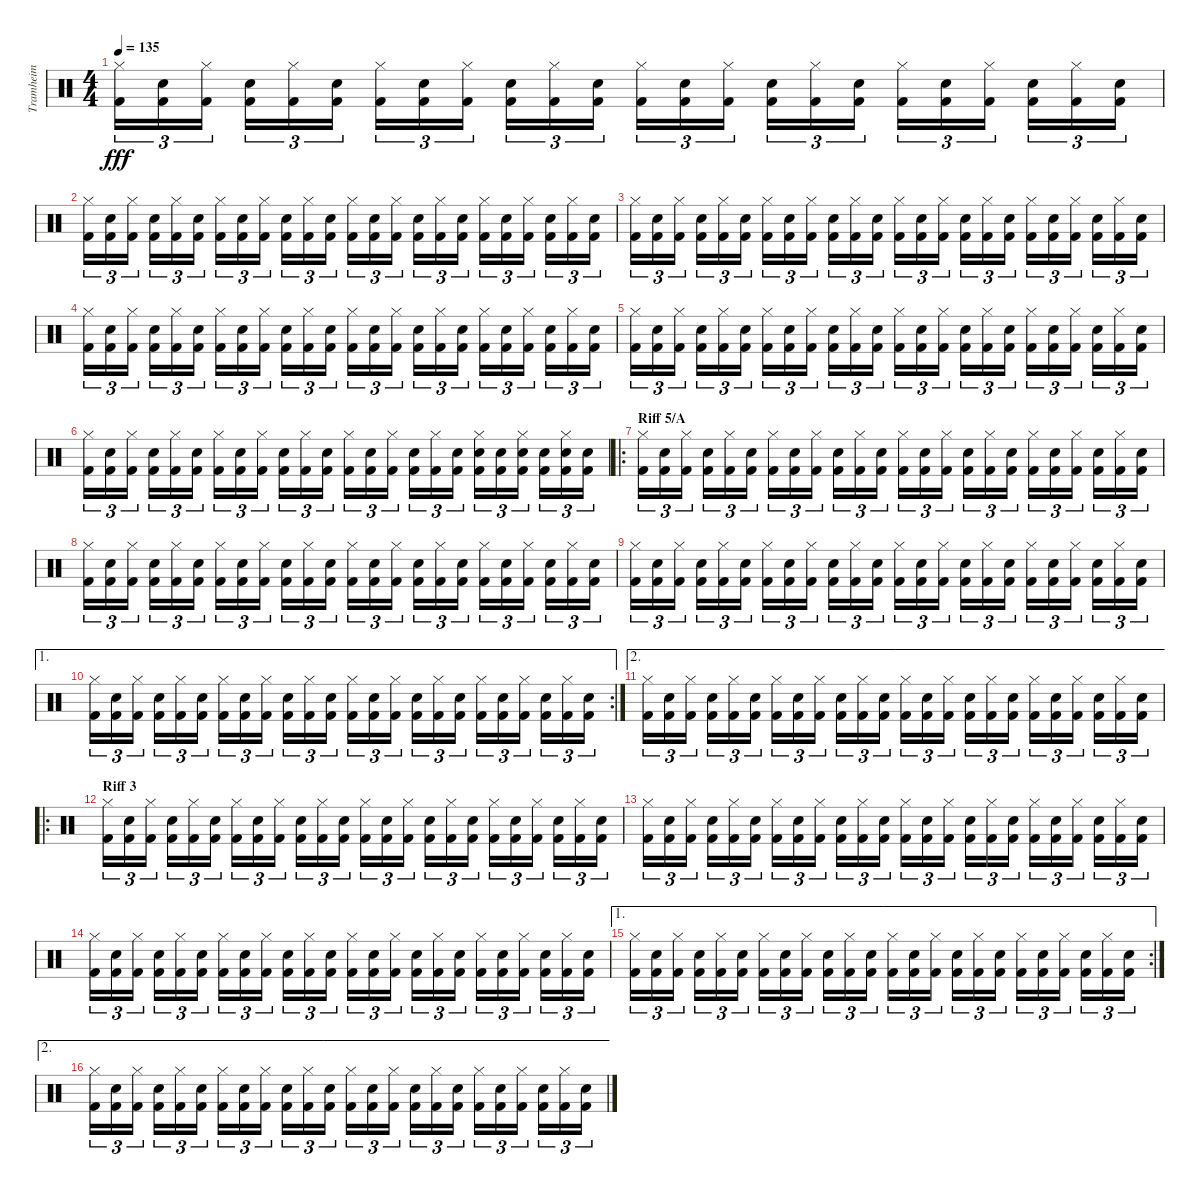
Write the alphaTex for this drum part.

\track ("Tramheim" "Tramheim") {instrument percussion}
\staff {score}
\articulation defaults
\ts (4 4)
\tempo 135
\clef neutral
\ks c
("Hi-Hat (closed)" "Kick (hit) 2").16{tu (3 2) dy fff} ("Snare (hit) 2" "Kick (hit) 2").16{tu (3 2)} ("Hi-Hat (closed)" "Kick (hit) 2").16{tu (3 2)} ("Snare (hit) 2" "Kick (hit) 2").16{tu (3 2)} ("Hi-Hat (closed)" "Kick (hit) 2").16{tu (3 2)} ("Snare (hit) 2" "Kick (hit) 2").16{tu (3 2)} ("Hi-Hat (closed)" "Kick (hit) 2").16{tu (3 2)} ("Snare (hit) 2" "Kick (hit) 2").16{tu (3 2)} ("Hi-Hat (closed)" "Kick (hit) 2").16{tu (3 2)} ("Snare (hit) 2" "Kick (hit) 2").16{tu (3 2)} ("Hi-Hat (closed)" "Kick (hit) 2").16{tu (3 2)} ("Snare (hit) 2" "Kick (hit) 2").16{tu (3 2)} ("Hi-Hat (closed)" "Kick (hit) 2").16{tu (3 2)} ("Snare (hit) 2" "Kick (hit) 2").16{tu (3 2)} ("Hi-Hat (closed)" "Kick (hit) 2").16{tu (3 2)} ("Snare (hit) 2" "Kick (hit) 2").16{tu (3 2)} ("Hi-Hat (closed)" "Kick (hit) 2").16{tu (3 2)} ("Snare (hit) 2" "Kick (hit) 2").16{tu (3 2)} ("Hi-Hat (closed)" "Kick (hit) 2").16{tu (3 2)} ("Snare (hit) 2" "Kick (hit) 2").16{tu (3 2)} ("Hi-Hat (closed)" "Kick (hit) 2").16{tu (3 2)} ("Snare (hit) 2" "Kick (hit) 2").16{tu (3 2)} ("Hi-Hat (closed)" "Kick (hit) 2").16{tu (3 2)} ("Snare (hit) 2" "Kick (hit) 2").16{tu (3 2)} |
("Hi-Hat (closed)" "Kick (hit) 2").16{tu (3 2)} ("Snare (hit) 2" "Kick (hit) 2").16{tu (3 2)} ("Hi-Hat (closed)" "Kick (hit) 2").16{tu (3 2)} ("Snare (hit) 2" "Kick (hit) 2").16{tu (3 2)} ("Hi-Hat (closed)" "Kick (hit) 2").16{tu (3 2)} ("Snare (hit) 2" "Kick (hit) 2").16{tu (3 2)} ("Hi-Hat (closed)" "Kick (hit) 2").16{tu (3 2)} ("Snare (hit) 2" "Kick (hit) 2").16{tu (3 2)} ("Hi-Hat (closed)" "Kick (hit) 2").16{tu (3 2)} ("Snare (hit) 2" "Kick (hit) 2").16{tu (3 2)} ("Hi-Hat (closed)" "Kick (hit) 2").16{tu (3 2)} ("Snare (hit) 2" "Kick (hit) 2").16{tu (3 2)} ("Hi-Hat (closed)" "Kick (hit) 2").16{tu (3 2)} ("Snare (hit) 2" "Kick (hit) 2").16{tu (3 2)} ("Hi-Hat (closed)" "Kick (hit) 2").16{tu (3 2)} ("Snare (hit) 2" "Kick (hit) 2").16{tu (3 2)} ("Hi-Hat (closed)" "Kick (hit) 2").16{tu (3 2)} ("Snare (hit) 2" "Kick (hit) 2").16{tu (3 2)} ("Hi-Hat (closed)" "Kick (hit) 2").16{tu (3 2)} ("Snare (hit) 2" "Kick (hit) 2").16{tu (3 2)} ("Hi-Hat (closed)" "Kick (hit) 2").16{tu (3 2)} ("Snare (hit) 2" "Kick (hit) 2").16{tu (3 2)} ("Hi-Hat (closed)" "Kick (hit) 2").16{tu (3 2)} ("Snare (hit) 2" "Kick (hit) 2").16{tu (3 2)} |
("Hi-Hat (closed)" "Kick (hit) 2").16{tu (3 2)} ("Snare (hit) 2" "Kick (hit) 2").16{tu (3 2)} ("Hi-Hat (closed)" "Kick (hit) 2").16{tu (3 2)} ("Snare (hit) 2" "Kick (hit) 2").16{tu (3 2)} ("Hi-Hat (closed)" "Kick (hit) 2").16{tu (3 2)} ("Snare (hit) 2" "Kick (hit) 2").16{tu (3 2)} ("Hi-Hat (closed)" "Kick (hit) 2").16{tu (3 2)} ("Snare (hit) 2" "Kick (hit) 2").16{tu (3 2)} ("Hi-Hat (closed)" "Kick (hit) 2").16{tu (3 2)} ("Snare (hit) 2" "Kick (hit) 2").16{tu (3 2)} ("Hi-Hat (closed)" "Kick (hit) 2").16{tu (3 2)} ("Snare (hit) 2" "Kick (hit) 2").16{tu (3 2)} ("Hi-Hat (closed)" "Kick (hit) 2").16{tu (3 2)} ("Snare (hit) 2" "Kick (hit) 2").16{tu (3 2)} ("Hi-Hat (closed)" "Kick (hit) 2").16{tu (3 2)} ("Snare (hit) 2" "Kick (hit) 2").16{tu (3 2)} ("Hi-Hat (closed)" "Kick (hit) 2").16{tu (3 2)} ("Snare (hit) 2" "Kick (hit) 2").16{tu (3 2)} ("Hi-Hat (closed)" "Kick (hit) 2").16{tu (3 2)} ("Snare (hit) 2" "Kick (hit) 2").16{tu (3 2)} ("Hi-Hat (closed)" "Kick (hit) 2").16{tu (3 2)} ("Snare (hit) 2" "Kick (hit) 2").16{tu (3 2)} ("Hi-Hat (closed)" "Kick (hit) 2").16{tu (3 2)} ("Snare (hit) 2" "Kick (hit) 2").16{tu (3 2)} |
("Hi-Hat (closed)" "Kick (hit) 2").16{tu (3 2)} ("Snare (hit) 2" "Kick (hit) 2").16{tu (3 2)} ("Hi-Hat (closed)" "Kick (hit) 2").16{tu (3 2)} ("Snare (hit) 2" "Kick (hit) 2").16{tu (3 2)} ("Hi-Hat (closed)" "Kick (hit) 2").16{tu (3 2)} ("Snare (hit) 2" "Kick (hit) 2").16{tu (3 2)} ("Hi-Hat (closed)" "Kick (hit) 2").16{tu (3 2)} ("Snare (hit) 2" "Kick (hit) 2").16{tu (3 2)} ("Hi-Hat (closed)" "Kick (hit) 2").16{tu (3 2)} ("Snare (hit) 2" "Kick (hit) 2").16{tu (3 2)} ("Hi-Hat (closed)" "Kick (hit) 2").16{tu (3 2)} ("Snare (hit) 2" "Kick (hit) 2").16{tu (3 2)} ("Hi-Hat (closed)" "Kick (hit) 2").16{tu (3 2)} ("Snare (hit) 2" "Kick (hit) 2").16{tu (3 2)} ("Hi-Hat (closed)" "Kick (hit) 2").16{tu (3 2)} ("Snare (hit) 2" "Kick (hit) 2").16{tu (3 2)} ("Hi-Hat (closed)" "Kick (hit) 2").16{tu (3 2)} ("Snare (hit) 2" "Kick (hit) 2").16{tu (3 2)} ("Hi-Hat (closed)" "Kick (hit) 2").16{tu (3 2)} ("Snare (hit) 2" "Kick (hit) 2").16{tu (3 2)} ("Hi-Hat (closed)" "Kick (hit) 2").16{tu (3 2)} ("Snare (hit) 2" "Kick (hit) 2").16{tu (3 2)} ("Hi-Hat (closed)" "Kick (hit) 2").16{tu (3 2)} ("Snare (hit) 2" "Kick (hit) 2").16{tu (3 2)} |
("Hi-Hat (closed)" "Kick (hit) 2").16{tu (3 2)} ("Snare (hit) 2" "Kick (hit) 2").16{tu (3 2)} ("Hi-Hat (closed)" "Kick (hit) 2").16{tu (3 2)} ("Snare (hit) 2" "Kick (hit) 2").16{tu (3 2)} ("Hi-Hat (closed)" "Kick (hit) 2").16{tu (3 2)} ("Snare (hit) 2" "Kick (hit) 2").16{tu (3 2)} ("Hi-Hat (closed)" "Kick (hit) 2").16{tu (3 2)} ("Snare (hit) 2" "Kick (hit) 2").16{tu (3 2)} ("Hi-Hat (closed)" "Kick (hit) 2").16{tu (3 2)} ("Snare (hit) 2" "Kick (hit) 2").16{tu (3 2)} ("Hi-Hat (closed)" "Kick (hit) 2").16{tu (3 2)} ("Snare (hit) 2" "Kick (hit) 2").16{tu (3 2)} ("Hi-Hat (closed)" "Kick (hit) 2").16{tu (3 2)} ("Snare (hit) 2" "Kick (hit) 2").16{tu (3 2)} ("Hi-Hat (closed)" "Kick (hit) 2").16{tu (3 2)} ("Snare (hit) 2" "Kick (hit) 2").16{tu (3 2)} ("Hi-Hat (closed)" "Kick (hit) 2").16{tu (3 2)} ("Snare (hit) 2" "Kick (hit) 2").16{tu (3 2)} ("Hi-Hat (closed)" "Kick (hit) 2").16{tu (3 2)} ("Snare (hit) 2" "Kick (hit) 2").16{tu (3 2)} ("Hi-Hat (closed)" "Kick (hit) 2").16{tu (3 2)} ("Snare (hit) 2" "Kick (hit) 2").16{tu (3 2)} ("Hi-Hat (closed)" "Kick (hit) 2").16{tu (3 2)} ("Snare (hit) 2" "Kick (hit) 2").16{tu (3 2)} |
("Hi-Hat (closed)" "Kick (hit) 2").16{tu (3 2)} ("Snare (hit) 2" "Kick (hit) 2").16{tu (3 2)} ("Hi-Hat (closed)" "Kick (hit) 2").16{tu (3 2)} ("Snare (hit) 2" "Kick (hit) 2").16{tu (3 2)} ("Hi-Hat (closed)" "Kick (hit) 2").16{tu (3 2)} ("Snare (hit) 2" "Kick (hit) 2").16{tu (3 2)} ("Hi-Hat (closed)" "Kick (hit) 2").16{tu (3 2)} ("Snare (hit) 2" "Kick (hit) 2").16{tu (3 2)} ("Hi-Hat (closed)" "Kick (hit) 2").16{tu (3 2)} ("Snare (hit) 2" "Kick (hit) 2").16{tu (3 2)} ("Hi-Hat (closed)" "Kick (hit) 2").16{tu (3 2)} ("Snare (hit) 2" "Kick (hit) 2").16{tu (3 2)} ("Hi-Hat (closed)" "Kick (hit) 2").16{tu (3 2)} ("Snare (hit) 2" "Kick (hit) 2").16{tu (3 2)} ("Hi-Hat (closed)" "Kick (hit) 2").16{tu (3 2)} ("Snare (hit) 2" "Kick (hit) 2").16{tu (3 2)} ("Hi-Hat (closed)" "Kick (hit) 2").16{tu (3 2)} ("Snare (hit) 2" "Kick (hit) 2").16{tu (3 2)} ("Snare (hit) 2" "Hi-Hat (closed)" "Kick (hit) 2").16{tu (3 2)} ("Snare (hit) 2" "Kick (hit) 2").16{tu (3 2)} ("Snare (hit) 2" "Hi-Hat (closed)" "Kick (hit) 2").16{tu (3 2)} ("Snare (hit) 2" "Kick (hit) 2").16{tu (3 2)} ("Snare (hit) 2" "Hi-Hat (closed)" "Kick (hit) 2").16{tu (3 2)} ("Snare (hit) 2" "Kick (hit) 2").16{tu (3 2)} |
\ro
\section ("" "Riff 5/A")
("Hi-Hat (closed)" "Kick (hit) 2").16{tu (3 2)} ("Snare (hit) 2" "Kick (hit) 2").16{tu (3 2)} ("Hi-Hat (closed)" "Kick (hit) 2").16{tu (3 2)} ("Snare (hit) 2" "Kick (hit) 2").16{tu (3 2)} ("Hi-Hat (closed)" "Kick (hit) 2").16{tu (3 2)} ("Snare (hit) 2" "Kick (hit) 2").16{tu (3 2)} ("Hi-Hat (closed)" "Kick (hit) 2").16{tu (3 2)} ("Snare (hit) 2" "Kick (hit) 2").16{tu (3 2)} ("Hi-Hat (closed)" "Kick (hit) 2").16{tu (3 2)} ("Snare (hit) 2" "Kick (hit) 2").16{tu (3 2)} ("Hi-Hat (closed)" "Kick (hit) 2").16{tu (3 2)} ("Snare (hit) 2" "Kick (hit) 2").16{tu (3 2)} ("Hi-Hat (closed)" "Kick (hit) 2").16{tu (3 2)} ("Snare (hit) 2" "Kick (hit) 2").16{tu (3 2)} ("Hi-Hat (closed)" "Kick (hit) 2").16{tu (3 2)} ("Snare (hit) 2" "Kick (hit) 2").16{tu (3 2)} ("Hi-Hat (closed)" "Kick (hit) 2").16{tu (3 2)} ("Snare (hit) 2" "Kick (hit) 2").16{tu (3 2)} ("Hi-Hat (closed)" "Kick (hit) 2").16{tu (3 2)} ("Snare (hit) 2" "Kick (hit) 2").16{tu (3 2)} ("Hi-Hat (closed)" "Kick (hit) 2").16{tu (3 2)} ("Snare (hit) 2" "Kick (hit) 2").16{tu (3 2)} ("Hi-Hat (closed)" "Kick (hit) 2").16{tu (3 2)} ("Snare (hit) 2" "Kick (hit) 2").16{tu (3 2)} |
("Hi-Hat (closed)" "Kick (hit) 2").16{tu (3 2)} ("Snare (hit) 2" "Kick (hit) 2").16{tu (3 2)} ("Hi-Hat (closed)" "Kick (hit) 2").16{tu (3 2)} ("Snare (hit) 2" "Kick (hit) 2").16{tu (3 2)} ("Hi-Hat (closed)" "Kick (hit) 2").16{tu (3 2)} ("Snare (hit) 2" "Kick (hit) 2").16{tu (3 2)} ("Hi-Hat (closed)" "Kick (hit) 2").16{tu (3 2)} ("Snare (hit) 2" "Kick (hit) 2").16{tu (3 2)} ("Hi-Hat (closed)" "Kick (hit) 2").16{tu (3 2)} ("Snare (hit) 2" "Kick (hit) 2").16{tu (3 2)} ("Hi-Hat (closed)" "Kick (hit) 2").16{tu (3 2)} ("Snare (hit) 2" "Kick (hit) 2").16{tu (3 2)} ("Hi-Hat (closed)" "Kick (hit) 2").16{tu (3 2)} ("Snare (hit) 2" "Kick (hit) 2").16{tu (3 2)} ("Hi-Hat (closed)" "Kick (hit) 2").16{tu (3 2)} ("Snare (hit) 2" "Kick (hit) 2").16{tu (3 2)} ("Hi-Hat (closed)" "Kick (hit) 2").16{tu (3 2)} ("Snare (hit) 2" "Kick (hit) 2").16{tu (3 2)} ("Hi-Hat (closed)" "Kick (hit) 2").16{tu (3 2)} ("Snare (hit) 2" "Kick (hit) 2").16{tu (3 2)} ("Hi-Hat (closed)" "Kick (hit) 2").16{tu (3 2)} ("Snare (hit) 2" "Kick (hit) 2").16{tu (3 2)} ("Hi-Hat (closed)" "Kick (hit) 2").16{tu (3 2)} ("Snare (hit) 2" "Kick (hit) 2").16{tu (3 2)} |
("Hi-Hat (closed)" "Kick (hit) 2").16{tu (3 2)} ("Snare (hit) 2" "Kick (hit) 2").16{tu (3 2)} ("Hi-Hat (closed)" "Kick (hit) 2").16{tu (3 2)} ("Snare (hit) 2" "Kick (hit) 2").16{tu (3 2)} ("Hi-Hat (closed)" "Kick (hit) 2").16{tu (3 2)} ("Snare (hit) 2" "Kick (hit) 2").16{tu (3 2)} ("Hi-Hat (closed)" "Kick (hit) 2").16{tu (3 2)} ("Snare (hit) 2" "Kick (hit) 2").16{tu (3 2)} ("Hi-Hat (closed)" "Kick (hit) 2").16{tu (3 2)} ("Snare (hit) 2" "Kick (hit) 2").16{tu (3 2)} ("Hi-Hat (closed)" "Kick (hit) 2").16{tu (3 2)} ("Snare (hit) 2" "Kick (hit) 2").16{tu (3 2)} ("Hi-Hat (closed)" "Kick (hit) 2").16{tu (3 2)} ("Snare (hit) 2" "Kick (hit) 2").16{tu (3 2)} ("Hi-Hat (closed)" "Kick (hit) 2").16{tu (3 2)} ("Snare (hit) 2" "Kick (hit) 2").16{tu (3 2)} ("Hi-Hat (closed)" "Kick (hit) 2").16{tu (3 2)} ("Snare (hit) 2" "Kick (hit) 2").16{tu (3 2)} ("Hi-Hat (closed)" "Kick (hit) 2").16{tu (3 2)} ("Snare (hit) 2" "Kick (hit) 2").16{tu (3 2)} ("Hi-Hat (closed)" "Kick (hit) 2").16{tu (3 2)} ("Snare (hit) 2" "Kick (hit) 2").16{tu (3 2)} ("Hi-Hat (closed)" "Kick (hit) 2").16{tu (3 2)} ("Snare (hit) 2" "Kick (hit) 2").16{tu (3 2)} |
\ae 1
\rc 2
("Hi-Hat (closed)" "Kick (hit) 2").16{tu (3 2)} ("Snare (hit) 2" "Kick (hit) 2").16{tu (3 2)} ("Hi-Hat (closed)" "Kick (hit) 2").16{tu (3 2)} ("Snare (hit) 2" "Kick (hit) 2").16{tu (3 2)} ("Hi-Hat (closed)" "Kick (hit) 2").16{tu (3 2)} ("Snare (hit) 2" "Kick (hit) 2").16{tu (3 2)} ("Hi-Hat (closed)" "Kick (hit) 2").16{tu (3 2)} ("Snare (hit) 2" "Kick (hit) 2").16{tu (3 2)} ("Hi-Hat (closed)" "Kick (hit) 2").16{tu (3 2)} ("Snare (hit) 2" "Kick (hit) 2").16{tu (3 2)} ("Hi-Hat (closed)" "Kick (hit) 2").16{tu (3 2)} ("Snare (hit) 2" "Kick (hit) 2").16{tu (3 2)} ("Hi-Hat (closed)" "Kick (hit) 2").16{tu (3 2)} ("Snare (hit) 2" "Kick (hit) 2").16{tu (3 2)} ("Hi-Hat (closed)" "Kick (hit) 2").16{tu (3 2)} ("Snare (hit) 2" "Kick (hit) 2").16{tu (3 2)} ("Hi-Hat (closed)" "Kick (hit) 2").16{tu (3 2)} ("Snare (hit) 2" "Kick (hit) 2").16{tu (3 2)} ("Hi-Hat (closed)" "Kick (hit) 2").16{tu (3 2)} ("Snare (hit) 2" "Kick (hit) 2").16{tu (3 2)} ("Hi-Hat (closed)" "Kick (hit) 2").16{tu (3 2)} ("Snare (hit) 2" "Kick (hit) 2").16{tu (3 2)} ("Hi-Hat (closed)" "Kick (hit) 2").16{tu (3 2)} ("Snare (hit) 2" "Kick (hit) 2").16{tu (3 2)} |
\ae 2
("Hi-Hat (closed)" "Kick (hit) 2").16{tu (3 2)} ("Snare (hit) 2" "Kick (hit) 2").16{tu (3 2)} ("Hi-Hat (closed)" "Kick (hit) 2").16{tu (3 2)} ("Snare (hit) 2" "Kick (hit) 2").16{tu (3 2)} ("Hi-Hat (closed)" "Kick (hit) 2").16{tu (3 2)} ("Snare (hit) 2" "Kick (hit) 2").16{tu (3 2)} ("Hi-Hat (closed)" "Kick (hit) 2").16{tu (3 2)} ("Snare (hit) 2" "Kick (hit) 2").16{tu (3 2)} ("Hi-Hat (closed)" "Kick (hit) 2").16{tu (3 2)} ("Snare (hit) 2" "Kick (hit) 2").16{tu (3 2)} ("Hi-Hat (closed)" "Kick (hit) 2").16{tu (3 2)} ("Snare (hit) 2" "Kick (hit) 2").16{tu (3 2)} ("Hi-Hat (closed)" "Kick (hit) 2").16{tu (3 2)} ("Snare (hit) 2" "Kick (hit) 2").16{tu (3 2)} ("Hi-Hat (closed)" "Kick (hit) 2").16{tu (3 2)} ("Snare (hit) 2" "Kick (hit) 2").16{tu (3 2)} ("Hi-Hat (closed)" "Kick (hit) 2").16{tu (3 2)} ("Snare (hit) 2" "Kick (hit) 2").16{tu (3 2)} ("Hi-Hat (closed)" "Kick (hit) 2").16{tu (3 2)} ("Snare (hit) 2" "Kick (hit) 2").16{tu (3 2)} ("Hi-Hat (closed)" "Kick (hit) 2").16{tu (3 2)} ("Snare (hit) 2" "Kick (hit) 2").16{tu (3 2)} ("Hi-Hat (closed)" "Kick (hit) 2").16{tu (3 2)} ("Snare (hit) 2" "Kick (hit) 2").16{tu (3 2)} |
\ro
\section ("" "Riff 3")
("Hi-Hat (closed)" "Kick (hit) 2").16{tu (3 2)} ("Snare (hit) 2" "Kick (hit) 2").16{tu (3 2)} ("Hi-Hat (closed)" "Kick (hit) 2").16{tu (3 2)} ("Snare (hit) 2" "Kick (hit) 2").16{tu (3 2)} ("Hi-Hat (closed)" "Kick (hit) 2").16{tu (3 2)} ("Snare (hit) 2" "Kick (hit) 2").16{tu (3 2)} ("Hi-Hat (closed)" "Kick (hit) 2").16{tu (3 2)} ("Snare (hit) 2" "Kick (hit) 2").16{tu (3 2)} ("Hi-Hat (closed)" "Kick (hit) 2").16{tu (3 2)} ("Snare (hit) 2" "Kick (hit) 2").16{tu (3 2)} ("Hi-Hat (closed)" "Kick (hit) 2").16{tu (3 2)} ("Snare (hit) 2" "Kick (hit) 2").16{tu (3 2)} ("Hi-Hat (closed)" "Kick (hit) 2").16{tu (3 2)} ("Snare (hit) 2" "Kick (hit) 2").16{tu (3 2)} ("Hi-Hat (closed)" "Kick (hit) 2").16{tu (3 2)} ("Snare (hit) 2" "Kick (hit) 2").16{tu (3 2)} ("Hi-Hat (closed)" "Kick (hit) 2").16{tu (3 2)} ("Snare (hit) 2" "Kick (hit) 2").16{tu (3 2)} ("Hi-Hat (closed)" "Kick (hit) 2").16{tu (3 2)} ("Snare (hit) 2" "Kick (hit) 2").16{tu (3 2)} ("Hi-Hat (closed)" "Kick (hit) 2").16{tu (3 2)} ("Snare (hit) 2" "Kick (hit) 2").16{tu (3 2)} ("Hi-Hat (closed)" "Kick (hit) 2").16{tu (3 2)} ("Snare (hit) 2" "Kick (hit) 2").16{tu (3 2)} |
("Hi-Hat (closed)" "Kick (hit) 2").16{tu (3 2)} ("Snare (hit) 2" "Kick (hit) 2").16{tu (3 2)} ("Hi-Hat (closed)" "Kick (hit) 2").16{tu (3 2)} ("Snare (hit) 2" "Kick (hit) 2").16{tu (3 2)} ("Hi-Hat (closed)" "Kick (hit) 2").16{tu (3 2)} ("Snare (hit) 2" "Kick (hit) 2").16{tu (3 2)} ("Hi-Hat (closed)" "Kick (hit) 2").16{tu (3 2)} ("Snare (hit) 2" "Kick (hit) 2").16{tu (3 2)} ("Hi-Hat (closed)" "Kick (hit) 2").16{tu (3 2)} ("Snare (hit) 2" "Kick (hit) 2").16{tu (3 2)} ("Hi-Hat (closed)" "Kick (hit) 2").16{tu (3 2)} ("Snare (hit) 2" "Kick (hit) 2").16{tu (3 2)} ("Hi-Hat (closed)" "Kick (hit) 2").16{tu (3 2)} ("Snare (hit) 2" "Kick (hit) 2").16{tu (3 2)} ("Hi-Hat (closed)" "Kick (hit) 2").16{tu (3 2)} ("Snare (hit) 2" "Kick (hit) 2").16{tu (3 2)} ("Hi-Hat (closed)" "Kick (hit) 2").16{tu (3 2)} ("Snare (hit) 2" "Kick (hit) 2").16{tu (3 2)} ("Hi-Hat (closed)" "Kick (hit) 2").16{tu (3 2)} ("Snare (hit) 2" "Kick (hit) 2").16{tu (3 2)} ("Hi-Hat (closed)" "Kick (hit) 2").16{tu (3 2)} ("Snare (hit) 2" "Kick (hit) 2").16{tu (3 2)} ("Hi-Hat (closed)" "Kick (hit) 2").16{tu (3 2)} ("Snare (hit) 2" "Kick (hit) 2").16{tu (3 2)} |
("Hi-Hat (closed)" "Kick (hit) 2").16{tu (3 2)} ("Snare (hit) 2" "Kick (hit) 2").16{tu (3 2)} ("Hi-Hat (closed)" "Kick (hit) 2").16{tu (3 2)} ("Snare (hit) 2" "Kick (hit) 2").16{tu (3 2)} ("Hi-Hat (closed)" "Kick (hit) 2").16{tu (3 2)} ("Snare (hit) 2" "Kick (hit) 2").16{tu (3 2)} ("Hi-Hat (closed)" "Kick (hit) 2").16{tu (3 2)} ("Snare (hit) 2" "Kick (hit) 2").16{tu (3 2)} ("Hi-Hat (closed)" "Kick (hit) 2").16{tu (3 2)} ("Snare (hit) 2" "Kick (hit) 2").16{tu (3 2)} ("Hi-Hat (closed)" "Kick (hit) 2").16{tu (3 2)} ("Snare (hit) 2" "Kick (hit) 2").16{tu (3 2)} ("Hi-Hat (closed)" "Kick (hit) 2").16{tu (3 2)} ("Snare (hit) 2" "Kick (hit) 2").16{tu (3 2)} ("Hi-Hat (closed)" "Kick (hit) 2").16{tu (3 2)} ("Snare (hit) 2" "Kick (hit) 2").16{tu (3 2)} ("Hi-Hat (closed)" "Kick (hit) 2").16{tu (3 2)} ("Snare (hit) 2" "Kick (hit) 2").16{tu (3 2)} ("Hi-Hat (closed)" "Kick (hit) 2").16{tu (3 2)} ("Snare (hit) 2" "Kick (hit) 2").16{tu (3 2)} ("Hi-Hat (closed)" "Kick (hit) 2").16{tu (3 2)} ("Snare (hit) 2" "Kick (hit) 2").16{tu (3 2)} ("Hi-Hat (closed)" "Kick (hit) 2").16{tu (3 2)} ("Snare (hit) 2" "Kick (hit) 2").16{tu (3 2)} |
\ae 1
\rc 2
("Hi-Hat (closed)" "Kick (hit) 2").16{tu (3 2)} ("Snare (hit) 2" "Kick (hit) 2").16{tu (3 2)} ("Hi-Hat (closed)" "Kick (hit) 2").16{tu (3 2)} ("Snare (hit) 2" "Kick (hit) 2").16{tu (3 2)} ("Hi-Hat (closed)" "Kick (hit) 2").16{tu (3 2)} ("Snare (hit) 2" "Kick (hit) 2").16{tu (3 2)} ("Hi-Hat (closed)" "Kick (hit) 2").16{tu (3 2)} ("Snare (hit) 2" "Kick (hit) 2").16{tu (3 2)} ("Hi-Hat (closed)" "Kick (hit) 2").16{tu (3 2)} ("Snare (hit) 2" "Kick (hit) 2").16{tu (3 2)} ("Hi-Hat (closed)" "Kick (hit) 2").16{tu (3 2)} ("Snare (hit) 2" "Kick (hit) 2").16{tu (3 2)} ("Hi-Hat (closed)" "Kick (hit) 2").16{tu (3 2)} ("Snare (hit) 2" "Kick (hit) 2").16{tu (3 2)} ("Hi-Hat (closed)" "Kick (hit) 2").16{tu (3 2)} ("Snare (hit) 2" "Kick (hit) 2").16{tu (3 2)} ("Hi-Hat (closed)" "Kick (hit) 2").16{tu (3 2)} ("Snare (hit) 2" "Kick (hit) 2").16{tu (3 2)} ("Hi-Hat (closed)" "Kick (hit) 2").16{tu (3 2)} ("Snare (hit) 2" "Kick (hit) 2").16{tu (3 2)} ("Hi-Hat (closed)" "Kick (hit) 2").16{tu (3 2)} ("Snare (hit) 2" "Kick (hit) 2").16{tu (3 2)} ("Hi-Hat (closed)" "Kick (hit) 2").16{tu (3 2)} ("Snare (hit) 2" "Kick (hit) 2").16{tu (3 2)} |
\ae 2
("Hi-Hat (closed)" "Kick (hit) 2").16{tu (3 2)} ("Snare (hit) 2" "Kick (hit) 2").16{tu (3 2)} ("Hi-Hat (closed)" "Kick (hit) 2").16{tu (3 2)} ("Snare (hit) 2" "Kick (hit) 2").16{tu (3 2)} ("Hi-Hat (closed)" "Kick (hit) 2").16{tu (3 2)} ("Snare (hit) 2" "Kick (hit) 2").16{tu (3 2)} ("Hi-Hat (closed)" "Kick (hit) 2").16{tu (3 2)} ("Snare (hit) 2" "Kick (hit) 2").16{tu (3 2)} ("Hi-Hat (closed)" "Kick (hit) 2").16{tu (3 2)} ("Snare (hit) 2" "Kick (hit) 2").16{tu (3 2)} ("Hi-Hat (closed)" "Kick (hit) 2").16{tu (3 2)} ("Snare (hit) 2" "Kick (hit) 2").16{tu (3 2)} ("Hi-Hat (closed)" "Kick (hit) 2").16{tu (3 2)} ("Snare (hit) 2" "Kick (hit) 2").16{tu (3 2)} ("Hi-Hat (closed)" "Kick (hit) 2").16{tu (3 2)} ("Snare (hit) 2" "Kick (hit) 2").16{tu (3 2)} ("Hi-Hat (closed)" "Kick (hit) 2").16{tu (3 2)} ("Snare (hit) 2" "Kick (hit) 2").16{tu (3 2)} ("Hi-Hat (closed)" "Kick (hit) 2").16{tu (3 2)} ("Snare (hit) 2" "Kick (hit) 2").16{tu (3 2)} ("Hi-Hat (closed)" "Kick (hit) 2").16{tu (3 2)} ("Snare (hit) 2" "Kick (hit) 2").16{tu (3 2)} ("Hi-Hat (closed)" "Kick (hit) 2").16{tu (3 2)} ("Snare (hit) 2" "Kick (hit) 2").16{tu (3 2)}
